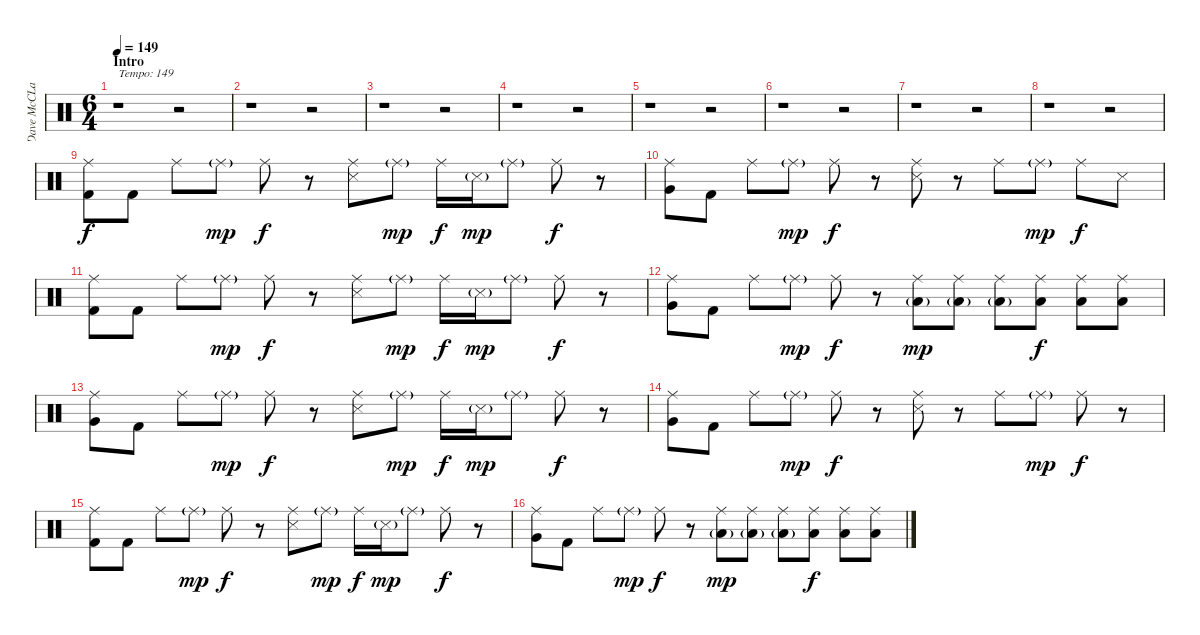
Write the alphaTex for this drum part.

\track ("Dave McCLain" "Dave McCLa") {instrument percussion}
\staff {score}
\articulation defaults
\ts (6 4)
\section ("" "Intro")
\tempo 149
\clef neutral
\ks c
r.1{txt "Tempo: 149" dy f} r.2 |
r.1 r.2 |
r.1 r.2 |
r.1 r.2 |
r.1 r.2 |
r.1 r.2 |
r.1 r.2 |
r.1 r.2 |
("Ride (middle)" "Kick (hit) 2").8 "Kick (hit) 2".8 "Ride (middle)".8 "Ride (middle)"{g}.8{dy mp} "Ride (middle)".8{dy f} r.8 ("Ride (middle)" "Snare (side stick) 3").8 "Ride (middle)"{g}.8{dy mp} "Ride (middle)".16{dy f} "Snare (side stick) 3"{g}.16{dy mp} "Ride (middle)"{g}.8 "Ride (middle)".8{dy f} r.8 |
("Ride (middle)" "Very Low Tom (hit)").8 "Kick (hit) 2".8 "Ride (middle)".8 "Ride (middle)"{g}.8{dy mp} "Ride (middle)".8{dy f} r.8 ("Ride (middle)" "Snare (side stick) 3").8 r.8 "Ride (middle)".8 "Ride (middle)"{g}.8{dy mp} "Ride (middle)".8{dy f} "Snare (side stick) 3".8 |
("Ride (middle)" "Kick (hit) 2").8 "Kick (hit) 2".8 "Ride (middle)".8 "Ride (middle)"{g}.8{dy mp} "Ride (middle)".8{dy f} r.8 ("Ride (middle)" "Snare (side stick) 3").8 "Ride (middle)"{g}.8{dy mp} "Ride (middle)".16{dy f} "Snare (side stick) 3"{g}.16{dy mp} "Ride (middle)"{g}.8 "Ride (middle)".8{dy f} r.8 |
("Ride (middle)" "Very Low Tom (hit)").8 "Kick (hit) 2".8 "Ride (middle)".8 "Ride (middle)"{g}.8{dy mp} "Ride (middle)".8{dy f} r.8 ("Ride (middle)" "Low Floor Tom (hit)"{g}).8{dy mp} ("Ride (middle)" "Low Floor Tom (hit)"{g}).8 ("Ride (middle)" "Low Floor Tom (hit)"{g}).8 ("Ride (middle)" "Low Floor Tom (hit)").8{dy f} ("Ride (middle)" "Low Floor Tom (hit)").8 ("Ride (middle)" "Low Floor Tom (hit)").8 |
("Ride (middle)" "Very Low Tom (hit)").8 "Kick (hit) 2".8 "Ride (middle)".8 "Ride (middle)"{g}.8{dy mp} "Ride (middle)".8{dy f} r.8 ("Ride (middle)" "Snare (side stick) 3").8 "Ride (middle)"{g}.8{dy mp} "Ride (middle)".16{dy f} "Snare (side stick) 3"{g}.16{dy mp} "Ride (middle)"{g}.8 "Ride (middle)".8{dy f} r.8 |
("Ride (middle)" "Very Low Tom (hit)").8 "Kick (hit) 2".8 "Ride (middle)".8 "Ride (middle)"{g}.8{dy mp} "Ride (middle)".8{dy f} r.8 ("Ride (middle)" "Snare (side stick) 3").8 r.8 "Ride (middle)".8 "Ride (middle)"{g}.8{dy mp} "Ride (middle)".8{dy f} r.8 |
("Ride (middle)" "Kick (hit) 2").8 "Kick (hit) 2".8 "Ride (middle)".8 "Ride (middle)"{g}.8{dy mp} "Ride (middle)".8{dy f} r.8 ("Ride (middle)" "Snare (side stick) 3").8 "Ride (middle)"{g}.8{dy mp} "Ride (middle)".16{dy f} "Snare (side stick) 3"{g}.16{dy mp} "Ride (middle)"{g}.8 "Ride (middle)".8{dy f} r.8 |
("Ride (middle)" "Very Low Tom (hit)").8 "Kick (hit) 2".8 "Ride (middle)".8 "Ride (middle)"{g}.8{dy mp} "Ride (middle)".8{dy f} r.8 ("Ride (middle)" "Low Floor Tom (hit)"{g}).8{dy mp} ("Ride (middle)" "Low Floor Tom (hit)"{g}).8 ("Ride (middle)" "Low Floor Tom (hit)"{g}).8 ("Ride (middle)" "Low Floor Tom (hit)").8{dy f} ("Ride (middle)" "Low Floor Tom (hit)").8 ("Ride (middle)" "Low Floor Tom (hit)").8
